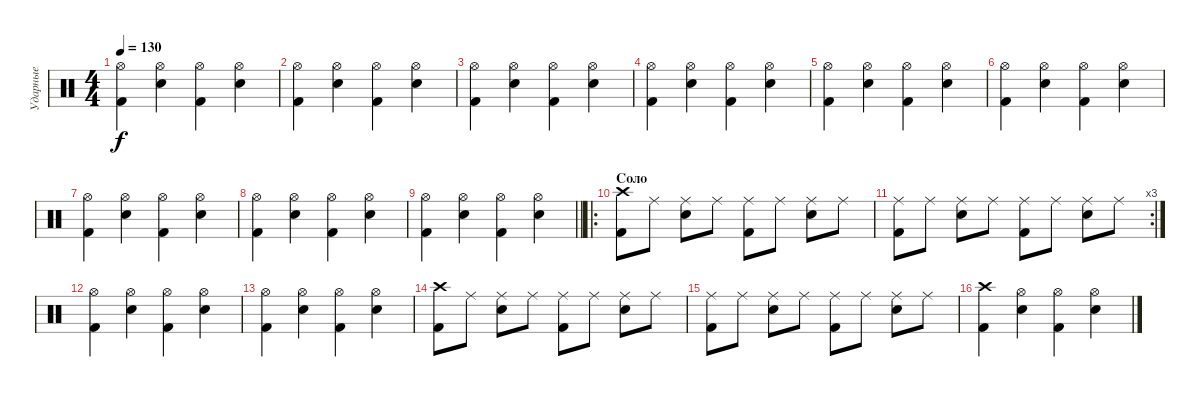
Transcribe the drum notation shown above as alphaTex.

\track ("Ударные" "Ударные") {instrument percussion}
\staff {score}
\articulation defaults
\ts (4 4)
\tempo 130
\clef neutral
\ks c
("Hi-Hat (open)" "Kick (hit) 2").4{dy f} ("Hi-Hat (open)" "Snare (hit) 2").4 ("Hi-Hat (open)" "Kick (hit) 2").4 ("Hi-Hat (open)" "Snare (hit) 2").4 |
("Hi-Hat (open)" "Kick (hit) 2").4 ("Hi-Hat (open)" "Snare (hit) 2").4 ("Hi-Hat (open)" "Kick (hit) 2").4 ("Hi-Hat (open)" "Snare (hit) 2").4 |
("Hi-Hat (open)" "Kick (hit) 2").4 ("Hi-Hat (open)" "Snare (hit) 2").4 ("Hi-Hat (open)" "Kick (hit) 2").4 ("Hi-Hat (open)" "Snare (hit) 2").4 |
("Hi-Hat (open)" "Kick (hit) 2").4 ("Hi-Hat (open)" "Snare (hit) 2").4 ("Hi-Hat (open)" "Kick (hit) 2").4 ("Hi-Hat (open)" "Snare (hit) 2").4 |
("Hi-Hat (open)" "Kick (hit) 2").4 ("Hi-Hat (open)" "Snare (hit) 2").4 ("Hi-Hat (open)" "Kick (hit) 2").4 ("Hi-Hat (open)" "Snare (hit) 2").4 |
("Hi-Hat (open)" "Kick (hit) 2").4 ("Hi-Hat (open)" "Snare (hit) 2").4 ("Hi-Hat (open)" "Kick (hit) 2").4 ("Hi-Hat (open)" "Snare (hit) 2").4 |
("Hi-Hat (open)" "Kick (hit) 2").4 ("Hi-Hat (open)" "Snare (hit) 2").4 ("Hi-Hat (open)" "Kick (hit) 2").4 ("Hi-Hat (open)" "Snare (hit) 2").4 |
("Hi-Hat (open)" "Kick (hit) 2").4 ("Hi-Hat (open)" "Snare (hit) 2").4 ("Hi-Hat (open)" "Kick (hit) 2").4 ("Hi-Hat (open)" "Snare (hit) 2").4 |
\barLineRight lightlight
("Hi-Hat (open)" "Kick (hit) 2").4 ("Hi-Hat (open)" "Snare (hit) 2").4 ("Hi-Hat (open)" "Kick (hit) 2").4 ("Hi-Hat (open)" "Snare (hit) 2").4 |
\ro
\section ("" "Соло")
("Crash high (hit)" "Kick (hit) 2").8 "Ride (middle)".8 ("Ride (middle)" "Snare (hit) 2").8 "Ride (middle)".8 ("Ride (middle)" "Kick (hit) 2").8 "Ride (middle)".8 ("Ride (middle)" "Snare (hit) 2").8 "Ride (middle)".8 |
\rc 3
("Ride (middle)" "Kick (hit) 2").8 "Ride (middle)".8 ("Ride (middle)" "Snare (hit) 2").8 "Ride (middle)".8 ("Ride (middle)" "Kick (hit) 2").8 "Ride (middle)".8 ("Ride (middle)" "Snare (hit) 2").8 "Ride (middle)".8 |
("Hi-Hat (open)" "Kick (hit) 2").4 ("Hi-Hat (open)" "Snare (hit) 2").4 ("Hi-Hat (open)" "Kick (hit) 2").4 ("Hi-Hat (open)" "Snare (hit) 2").4 |
("Hi-Hat (open)" "Kick (hit) 2").4 ("Hi-Hat (open)" "Snare (hit) 2").4 ("Hi-Hat (open)" "Kick (hit) 2").4 ("Hi-Hat (open)" "Snare (hit) 2").4 |
("Crash high (hit)" "Kick (hit) 2").8 "Ride (middle)".8 ("Ride (middle)" "Snare (hit) 2").8 "Ride (middle)".8 ("Ride (middle)" "Kick (hit) 2").8 "Ride (middle)".8 ("Ride (middle)" "Snare (hit) 2").8 "Ride (middle)".8 |
("Ride (middle)" "Kick (hit) 2").8 "Ride (middle)".8 ("Ride (middle)" "Snare (hit) 2").8 "Ride (middle)".8 ("Ride (middle)" "Kick (hit) 2").8 "Ride (middle)".8 ("Ride (middle)" "Snare (hit) 2").8 "Ride (middle)".8 |
("Crash high (hit)" "Kick (hit) 2").4 ("Hi-Hat (open)" "Snare (hit) 2").4 ("Hi-Hat (open)" "Kick (hit) 2").4 ("Hi-Hat (open)" "Snare (hit) 2").4
